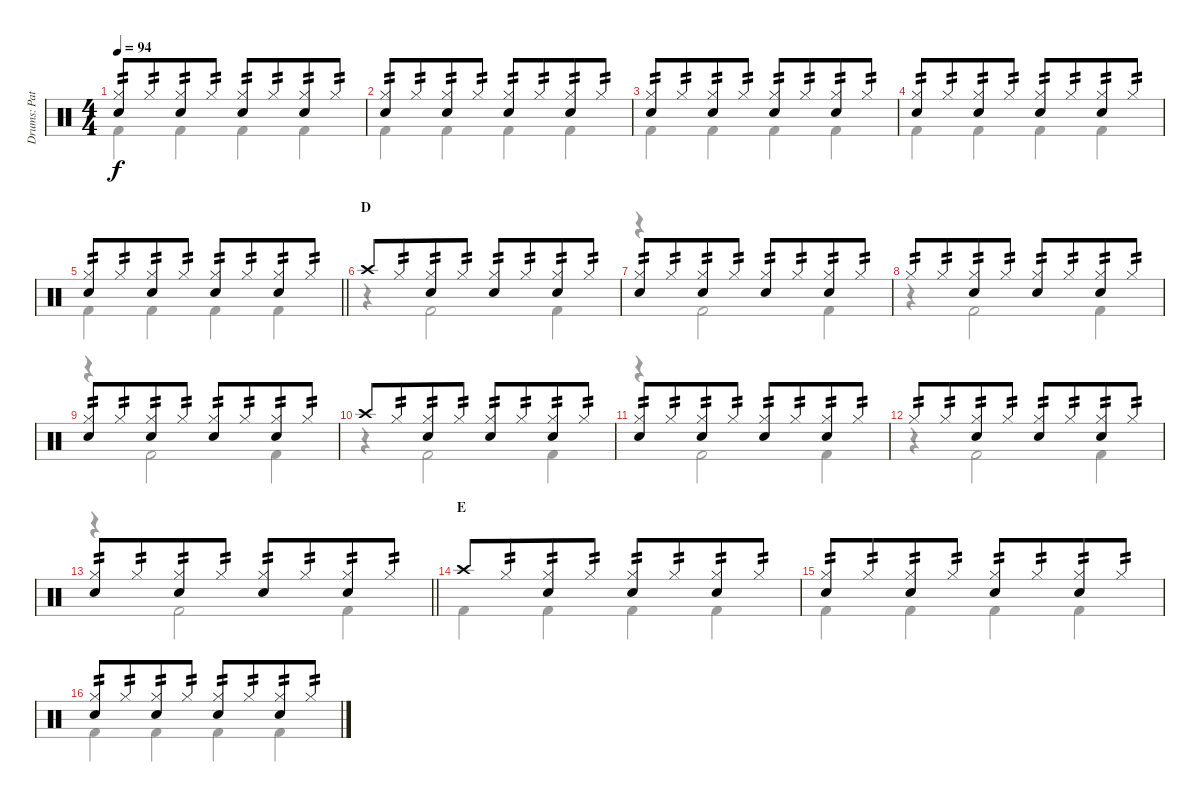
\track ("Drums: Pat" "Drums: Pat") {instrument percussion}
\staff {score}
\articulation defaults
\voice
\ts (4 4)
\tempo 94
\clef neutral
\ks c
("Hi-Hat (closed)" "Electric Snare (hit)").8{tp 2 dy f} "Hi-Hat (closed)".8{tp 2 beam merge} ("Hi-Hat (closed)" "Electric Snare (hit)").8{tp 2} "Hi-Hat (closed)".8{tp 2} ("Hi-Hat (closed)" "Electric Snare (hit)").8{tp 2} "Hi-Hat (closed)".8{tp 2 beam merge} ("Hi-Hat (closed)" "Electric Snare (hit)").8{tp 2} "Hi-Hat (closed)".8{tp 2} |
("Hi-Hat (closed)" "Electric Snare (hit)").8{tp 2} "Hi-Hat (closed)".8{tp 2 beam merge} ("Hi-Hat (closed)" "Electric Snare (hit)").8{tp 2} "Hi-Hat (closed)".8{tp 2} ("Hi-Hat (closed)" "Electric Snare (hit)").8{tp 2} "Hi-Hat (closed)".8{tp 2 beam merge} ("Hi-Hat (closed)" "Electric Snare (hit)").8{tp 2} "Hi-Hat (closed)".8{tp 2} |
("Hi-Hat (closed)" "Electric Snare (hit)").8{tp 2} "Hi-Hat (closed)".8{tp 2 beam merge} ("Hi-Hat (closed)" "Electric Snare (hit)").8{tp 2} "Hi-Hat (closed)".8{tp 2} ("Hi-Hat (closed)" "Electric Snare (hit)").8{tp 2} "Hi-Hat (closed)".8{tp 2 beam merge} ("Hi-Hat (closed)" "Electric Snare (hit)").8{tp 2} "Hi-Hat (closed)".8{tp 2} |
("Hi-Hat (closed)" "Electric Snare (hit)").8{tp 2} "Hi-Hat (closed)".8{tp 2 beam merge} ("Hi-Hat (closed)" "Electric Snare (hit)").8{tp 2} "Hi-Hat (closed)".8{tp 2} ("Hi-Hat (closed)" "Electric Snare (hit)").8{tp 2} "Hi-Hat (closed)".8{tp 2 beam merge} ("Hi-Hat (closed)" "Electric Snare (hit)").8{tp 2} "Hi-Hat (closed)".8{tp 2} |
\barLineRight lightlight
("Hi-Hat (closed)" "Electric Snare (hit)").8{tp 2} "Hi-Hat (closed)".8{tp 2 beam merge} ("Hi-Hat (closed)" "Electric Snare (hit)").8{tp 2} "Hi-Hat (closed)".8{tp 2} ("Hi-Hat (closed)" "Electric Snare (hit)").8{tp 2} "Hi-Hat (closed)".8{tp 2 beam merge} ("Hi-Hat (closed)" "Electric Snare (hit)").8{tp 2} "Hi-Hat (closed)".8{tp 2} |
\section ("" "D")
"Crash high (hit)".8 "Hi-Hat (closed)".8{tp 2 beam merge} ("Hi-Hat (closed)" "Electric Snare (hit)").8{tp 2} "Hi-Hat (closed)".8{tp 2} ("Hi-Hat (closed)" "Electric Snare (hit)").8{tp 2} "Hi-Hat (closed)".8{tp 2 beam merge} ("Hi-Hat (closed)" "Electric Snare (hit)").8{tp 2} "Hi-Hat (closed)".8{tp 2} |
("Hi-Hat (closed)" "Electric Snare (hit)").8{tp 2} "Hi-Hat (closed)".8{tp 2 beam merge} ("Hi-Hat (closed)" "Electric Snare (hit)").8{tp 2} "Hi-Hat (closed)".8{tp 2} ("Hi-Hat (closed)" "Electric Snare (hit)").8{tp 2} "Hi-Hat (closed)".8{tp 2 beam merge} ("Hi-Hat (closed)" "Electric Snare (hit)").8{tp 2} "Hi-Hat (closed)".8{tp 2} |
"Hi-Hat (closed)".8{tp 2} "Hi-Hat (closed)".8{tp 2 beam merge} ("Hi-Hat (closed)" "Electric Snare (hit)").8{tp 2} "Hi-Hat (closed)".8{tp 2} ("Hi-Hat (closed)" "Electric Snare (hit)").8{tp 2} "Hi-Hat (closed)".8{tp 2 beam merge} ("Hi-Hat (closed)" "Electric Snare (hit)").8{tp 2} "Hi-Hat (closed)".8{tp 2} |
("Hi-Hat (closed)" "Electric Snare (hit)").8{tp 2} "Hi-Hat (closed)".8{tp 2 beam merge} ("Hi-Hat (closed)" "Electric Snare (hit)").8{tp 2} "Hi-Hat (closed)".8{tp 2} ("Hi-Hat (closed)" "Electric Snare (hit)").8{tp 2} "Hi-Hat (closed)".8{tp 2 beam merge} ("Hi-Hat (closed)" "Electric Snare (hit)").8{tp 2} "Hi-Hat (closed)".8{tp 2} |
"Crash high (hit)".8 "Hi-Hat (closed)".8{tp 2 beam merge} ("Hi-Hat (closed)" "Electric Snare (hit)").8{tp 2} "Hi-Hat (closed)".8{tp 2} ("Hi-Hat (closed)" "Electric Snare (hit)").8{tp 2} "Hi-Hat (closed)".8{tp 2 beam merge} ("Hi-Hat (closed)" "Electric Snare (hit)").8{tp 2} "Hi-Hat (closed)".8{tp 2} |
("Hi-Hat (closed)" "Electric Snare (hit)").8{tp 2} "Hi-Hat (closed)".8{tp 2 beam merge} ("Hi-Hat (closed)" "Electric Snare (hit)").8{tp 2} "Hi-Hat (closed)".8{tp 2} ("Hi-Hat (closed)" "Electric Snare (hit)").8{tp 2} "Hi-Hat (closed)".8{tp 2 beam merge} ("Hi-Hat (closed)" "Electric Snare (hit)").8{tp 2} "Hi-Hat (closed)".8{tp 2} |
"Hi-Hat (closed)".8{tp 2} "Hi-Hat (closed)".8{tp 2 beam merge} ("Hi-Hat (closed)" "Electric Snare (hit)").8{tp 2} "Hi-Hat (closed)".8{tp 2} ("Hi-Hat (closed)" "Electric Snare (hit)").8{tp 2} "Hi-Hat (closed)".8{tp 2 beam merge} ("Hi-Hat (closed)" "Electric Snare (hit)").8{tp 2} "Hi-Hat (closed)".8{tp 2} |
\barLineRight lightlight
("Hi-Hat (closed)" "Electric Snare (hit)").8{tp 2} "Hi-Hat (closed)".8{tp 2 beam merge} ("Hi-Hat (closed)" "Electric Snare (hit)").8{tp 2} "Hi-Hat (closed)".8{tp 2} ("Hi-Hat (closed)" "Electric Snare (hit)").8{tp 2} "Hi-Hat (closed)".8{tp 2 beam merge} ("Hi-Hat (closed)" "Electric Snare (hit)").8{tp 2} "Hi-Hat (closed)".8{tp 2} |
\section ("" "E")
"Crash high (hit)".8 "Hi-Hat (closed)".8{tp 2 beam merge} ("Hi-Hat (closed)" "Electric Snare (hit)").8{tp 2} "Hi-Hat (closed)".8{tp 2} ("Hi-Hat (closed)" "Electric Snare (hit)").8{tp 2} "Hi-Hat (closed)".8{tp 2 beam merge} ("Hi-Hat (closed)" "Electric Snare (hit)").8{tp 2} "Hi-Hat (closed)".8{tp 2} |
("Hi-Hat (closed)" "Electric Snare (hit)").8{tp 2} "Hi-Hat (closed)".8{tp 2 beam merge} ("Hi-Hat (closed)" "Electric Snare (hit)").8{tp 2} "Hi-Hat (closed)".8{tp 2} ("Hi-Hat (closed)" "Electric Snare (hit)").8{tp 2} "Hi-Hat (closed)".8{tp 2 beam merge} ("Hi-Hat (closed)" "Electric Snare (hit)").8{tp 2} "Hi-Hat (closed)".8{tp 2} |
("Hi-Hat (closed)" "Electric Snare (hit)").8{tp 2} "Hi-Hat (closed)".8{tp 2 beam merge} ("Hi-Hat (closed)" "Electric Snare (hit)").8{tp 2} "Hi-Hat (closed)".8{tp 2} ("Hi-Hat (closed)" "Electric Snare (hit)").8{tp 2} "Hi-Hat (closed)".8{tp 2 beam merge} ("Hi-Hat (closed)" "Electric Snare (hit)").8{tp 2} "Hi-Hat (closed)".8{tp 2}
\voice
\clef neutral
\ottava regular
\simile none
\ks c "Kick (hit) 2".4{dy f} "Kick (hit) 2".4 "Kick (hit) 2".4 "Kick (hit) 2".4
|
"Kick (hit) 2".4 "Kick (hit) 2".4 "Kick (hit) 2".4 "Kick (hit) 2".4 |
"Kick (hit) 2".4 "Kick (hit) 2".4 "Kick (hit) 2".4 "Kick (hit) 2".4 |
"Kick (hit) 2".4 "Kick (hit) 2".4 "Kick (hit) 2".4 "Kick (hit) 2".4 |
\barLineRight lightlight "Kick (hit) 2".4 "Kick (hit) 2".4 "Kick (hit) 2".4 "Kick (hit) 2".4
|
r.4 "Kick (hit) 2".2 "Kick (hit) 2".4 |
r.4 "Kick (hit) 2".2 "Kick (hit) 2".4 |
r.4 "Kick (hit) 2".2 "Kick (hit) 2".4 |
r.4 "Kick (hit) 2".2 "Kick (hit) 2".4 |
r.4 "Kick (hit) 2".2 "Kick (hit) 2".4 |
r.4 "Kick (hit) 2".2 "Kick (hit) 2".4 |
r.4 "Kick (hit) 2".2 "Kick (hit) 2".4 |
\barLineRight lightlight
r.4 "Kick (hit) 2".2 "Kick (hit) 2".4 |
"Kick (hit) 2".4 "Kick (hit) 2".4 "Kick (hit) 2".4 "Kick (hit) 2".4 |
"Kick (hit) 2".4 "Kick (hit) 2".4 "Kick (hit) 2".4 "Kick (hit) 2".4 |
"Kick (hit) 2".4 "Kick (hit) 2".4 "Kick (hit) 2".4 "Kick (hit) 2".4
